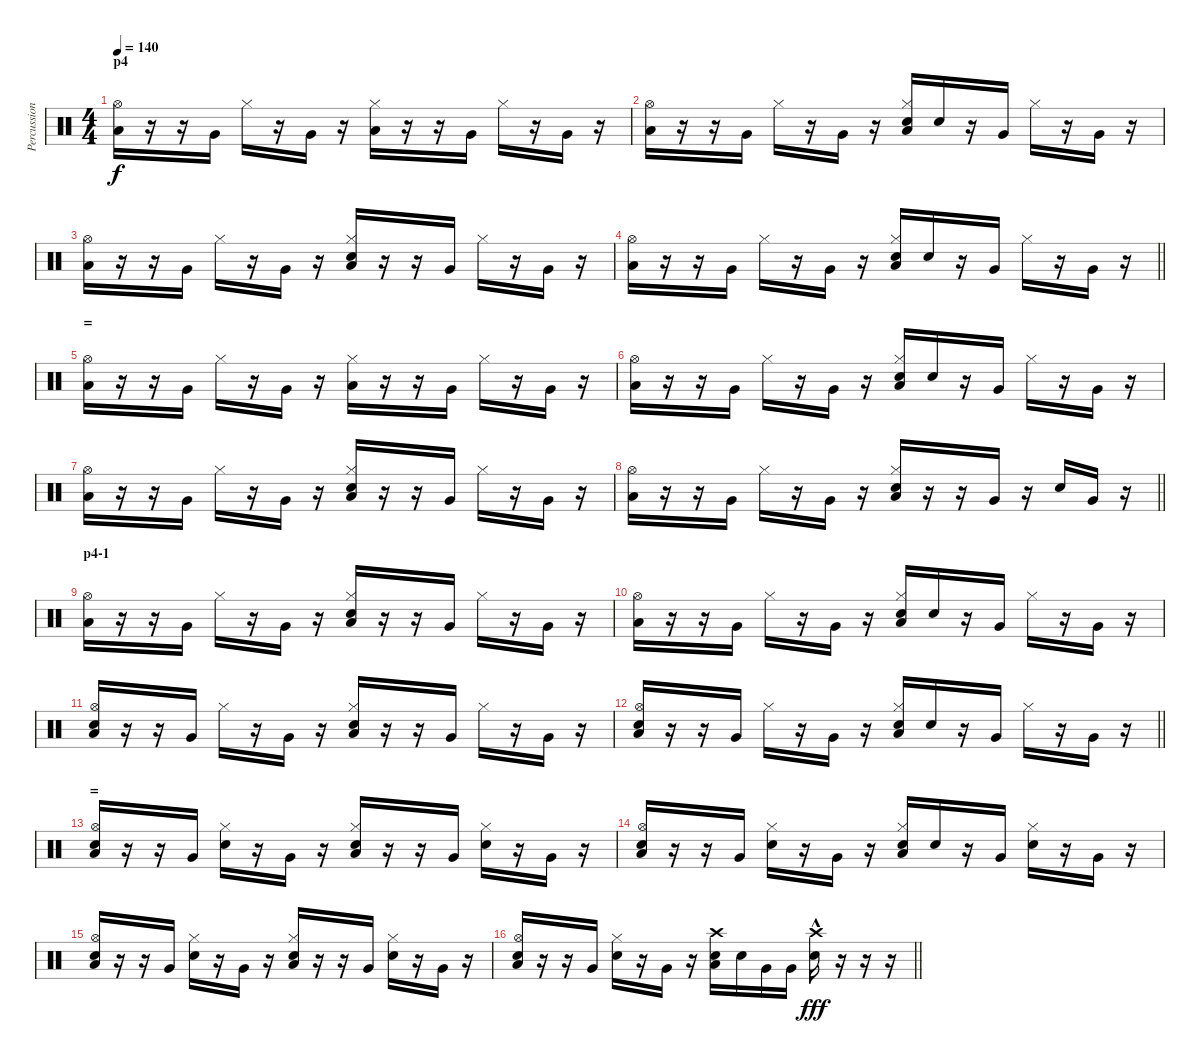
\track ("Percussion" "Percussion") {instrument percussion}
\staff {score}
\articulation defaults
\ts (4 4)
\section ("" "p4")
\tempo 140
\clef neutral
\ks c
("Low Floor Tom (hit)" "Hi-Hat (open)").16{dy f} r.16 r.16 "Very Low Tom (hit)".16 "Hi-Hat (closed)".16 r.16 "Very Low Tom (hit)".16 r.16 ("Low Floor Tom (hit)" "Hi-Hat (closed)").16 r.16 r.16 "Very Low Tom (hit)".16 "Hi-Hat (closed)".16 r.16 "Very Low Tom (hit)".16 r.16 |
("Low Floor Tom (hit)" "Hi-Hat (open)").16 r.16 r.16 "Very Low Tom (hit)".16 "Hi-Hat (closed)".16 r.16 "Very Low Tom (hit)".16 r.16 ("Low Floor Tom (hit)" "Electric Snare (hit)" "Hi-Hat (closed)").16 "Electric Snare (hit)".16 r.16 "Very Low Tom (hit)".16 "Hi-Hat (closed)".16 r.16 "Very Low Tom (hit)".16 r.16 |
("Low Floor Tom (hit)" "Hi-Hat (open)").16 r.16 r.16 "Very Low Tom (hit)".16 "Hi-Hat (closed)".16 r.16 "Very Low Tom (hit)".16 r.16 ("Low Floor Tom (hit)" "Electric Snare (hit)" "Hi-Hat (closed)").16 r.16 r.16 "Very Low Tom (hit)".16 "Hi-Hat (closed)".16 r.16 "Very Low Tom (hit)".16 r.16 |
\barLineRight lightlight
("Low Floor Tom (hit)" "Hi-Hat (open)").16 r.16 r.16 "Very Low Tom (hit)".16 "Hi-Hat (closed)".16 r.16 "Very Low Tom (hit)".16 r.16 ("Low Floor Tom (hit)" "Electric Snare (hit)" "Hi-Hat (closed)").16 "Electric Snare (hit)".16 r.16 "Very Low Tom (hit)".16 "Hi-Hat (closed)".16 r.16 "Very Low Tom (hit)".16 r.16 |
\section ("" "=")
("Low Floor Tom (hit)" "Hi-Hat (open)").16 r.16 r.16 "Very Low Tom (hit)".16 "Hi-Hat (closed)".16 r.16 "Very Low Tom (hit)".16 r.16 ("Low Floor Tom (hit)" "Hi-Hat (closed)").16 r.16 r.16 "Very Low Tom (hit)".16 "Hi-Hat (closed)".16 r.16 "Very Low Tom (hit)".16 r.16 |
("Low Floor Tom (hit)" "Hi-Hat (open)").16 r.16 r.16 "Very Low Tom (hit)".16 "Hi-Hat (closed)".16 r.16 "Very Low Tom (hit)".16 r.16 ("Low Floor Tom (hit)" "Electric Snare (hit)" "Hi-Hat (closed)").16 "Electric Snare (hit)".16 r.16 "Very Low Tom (hit)".16 "Hi-Hat (closed)".16 r.16 "Very Low Tom (hit)".16 r.16 |
("Low Floor Tom (hit)" "Hi-Hat (open)").16 r.16 r.16 "Very Low Tom (hit)".16 "Hi-Hat (closed)".16 r.16 "Very Low Tom (hit)".16 r.16 ("Low Floor Tom (hit)" "Electric Snare (hit)" "Hi-Hat (closed)").16 r.16 r.16 "Very Low Tom (hit)".16 "Hi-Hat (closed)".16 r.16 "Very Low Tom (hit)".16 r.16 |
\barLineRight lightlight
("Low Floor Tom (hit)" "Hi-Hat (open)").16 r.16 r.16 "Very Low Tom (hit)".16 "Hi-Hat (closed)".16 r.16 "Very Low Tom (hit)".16 r.16 ("Low Floor Tom (hit)" "Electric Snare (hit)" "Hi-Hat (closed)").16 r.16 r.16 "Very Low Tom (hit)".16 r.16 "Electric Snare (hit)".16 "Very Low Tom (hit)".16 r.16 |
\section ("" "p4-1")
("Low Floor Tom (hit)" "Hi-Hat (open)").16 r.16 r.16 "Very Low Tom (hit)".16 "Hi-Hat (closed)".16 r.16 "Very Low Tom (hit)".16 r.16 ("Low Floor Tom (hit)" "Electric Snare (hit)" "Hi-Hat (closed)").16 r.16 r.16 "Very Low Tom (hit)".16 "Hi-Hat (closed)".16 r.16 "Very Low Tom (hit)".16 r.16 |
("Low Floor Tom (hit)" "Hi-Hat (open)").16 r.16 r.16 "Very Low Tom (hit)".16 "Hi-Hat (closed)".16 r.16 "Very Low Tom (hit)".16 r.16 ("Low Floor Tom (hit)" "Electric Snare (hit)" "Hi-Hat (closed)").16 "Electric Snare (hit)".16 r.16 "Very Low Tom (hit)".16 "Hi-Hat (closed)".16 r.16 "Very Low Tom (hit)".16 r.16 |
("Low Floor Tom (hit)" "Electric Snare (hit)" "Hi-Hat (open)").16 r.16 r.16 "Very Low Tom (hit)".16 "Hi-Hat (closed)".16 r.16 "Very Low Tom (hit)".16 r.16 ("Low Floor Tom (hit)" "Electric Snare (hit)" "Hi-Hat (closed)").16 r.16 r.16 "Very Low Tom (hit)".16 "Hi-Hat (closed)".16 r.16 "Very Low Tom (hit)".16 r.16 |
\barLineRight lightlight
("Low Floor Tom (hit)" "Electric Snare (hit)" "Hi-Hat (open)").16 r.16 r.16 "Very Low Tom (hit)".16 "Hi-Hat (closed)".16 r.16 "Very Low Tom (hit)".16 r.16 ("Low Floor Tom (hit)" "Electric Snare (hit)" "Hi-Hat (closed)").16 "Electric Snare (hit)".16 r.16 "Very Low Tom (hit)".16 "Hi-Hat (closed)".16 r.16 "Very Low Tom (hit)".16 r.16 |
\section ("" "=")
("Low Floor Tom (hit)" "Electric Snare (hit)" "Hi-Hat (open)").16 r.16 r.16 "Very Low Tom (hit)".16 ("Electric Snare (hit)" "Hi-Hat (closed)").16 r.16 "Very Low Tom (hit)".16 r.16 ("Low Floor Tom (hit)" "Electric Snare (hit)" "Hi-Hat (closed)").16 r.16 r.16 "Very Low Tom (hit)".16 ("Electric Snare (hit)" "Hi-Hat (closed)").16 r.16 "Very Low Tom (hit)".16 r.16 |
("Low Floor Tom (hit)" "Electric Snare (hit)" "Hi-Hat (open)").16 r.16 r.16 "Very Low Tom (hit)".16 ("Electric Snare (hit)" "Hi-Hat (closed)").16 r.16 "Very Low Tom (hit)".16 r.16 ("Low Floor Tom (hit)" "Electric Snare (hit)" "Hi-Hat (closed)").16 "Electric Snare (hit)".16 r.16 "Very Low Tom (hit)".16 ("Electric Snare (hit)" "Hi-Hat (closed)").16 r.16 "Very Low Tom (hit)".16 r.16 |
("Low Floor Tom (hit)" "Electric Snare (hit)" "Hi-Hat (open)").16 r.16 r.16 "Very Low Tom (hit)".16 ("Electric Snare (hit)" "Hi-Hat (closed)").16 r.16 "Very Low Tom (hit)".16 r.16 ("Low Floor Tom (hit)" "Electric Snare (hit)" "Hi-Hat (closed)").16 r.16 r.16 "Very Low Tom (hit)".16 ("Electric Snare (hit)" "Hi-Hat (closed)").16 r.16 "Very Low Tom (hit)".16 r.16 |
\barLineRight lightlight
("Low Floor Tom (hit)" "Electric Snare (hit)" "Hi-Hat (open)").16 r.16 r.16 "Very Low Tom (hit)".16 ("Electric Snare (hit)" "Hi-Hat (closed)").16 r.16 "Very Low Tom (hit)".16 r.16 ("Low Floor Tom (hit)" "Electric Snare (hit)" "Crash high (hit)").16 "Electric Snare (hit)".16 "Very Low Tom (hit)".16 "Very Low Tom (hit)".16 ("Electric Snare (hit)"{hac} "Crash high (hit)").16{dy fff} r.16 r.16 r.16
